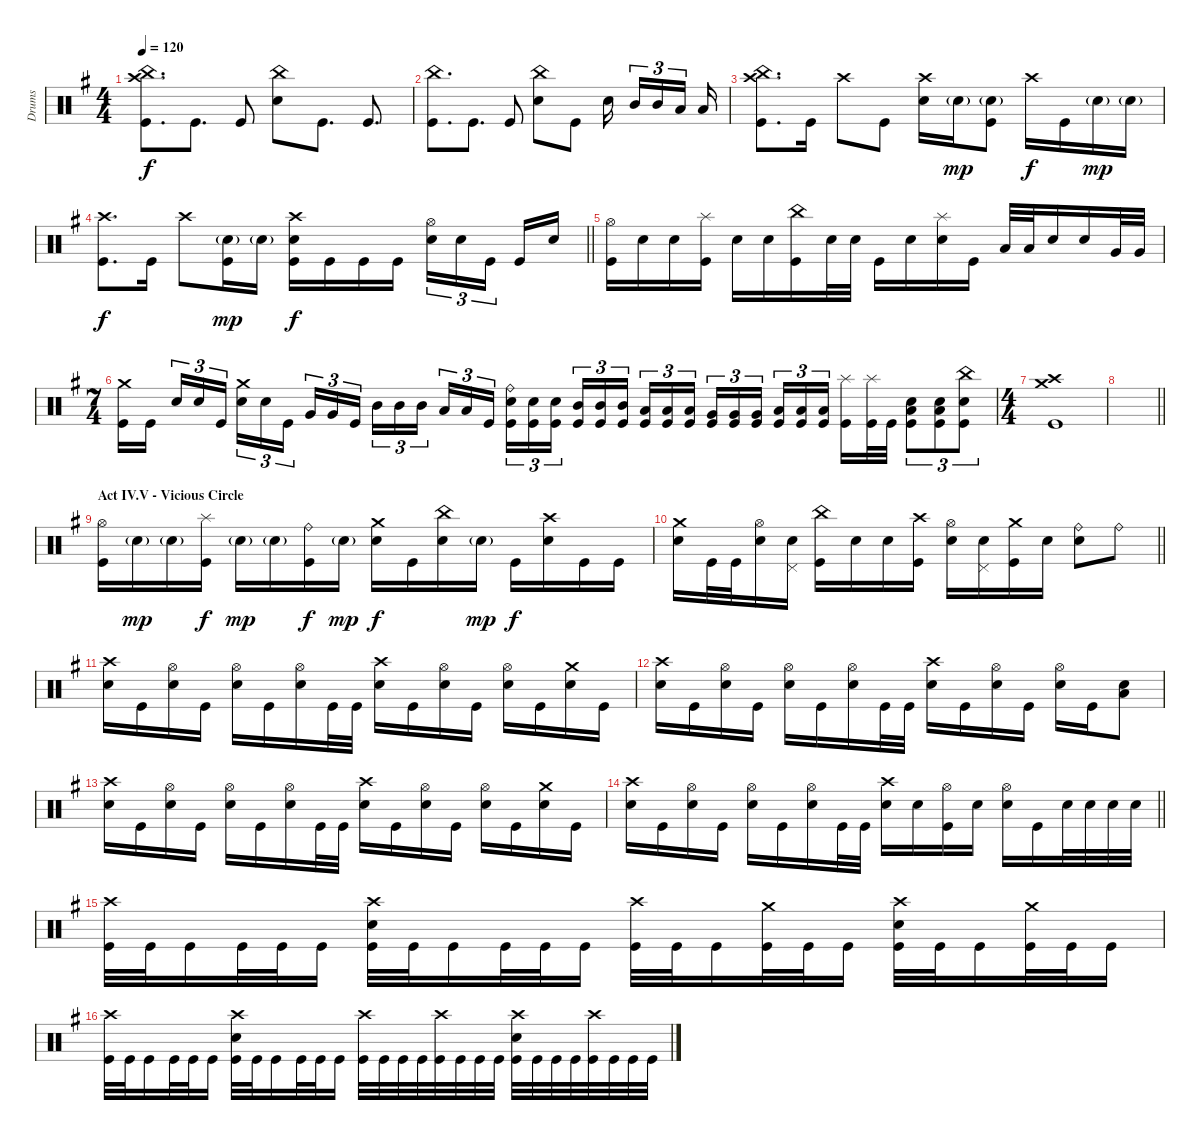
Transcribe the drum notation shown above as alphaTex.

\track ("Drums" "Drums") {instrument percussion}
\staff
\articulation defaults
\ts (4 4)
\tempo 120
\clef neutral
\ks eminor
("Crash high (hit)" "China (hit)" "Kick (hit)").8{d dy f} "Kick (hit)".8{d} "Kick (hit)".8 ("China (hit)" "Electric Snare (hit)").8 "Kick (hit)".8{d} "Kick (hit)".8{d} |
("China (hit)" "Kick (hit)").8{d} "Kick (hit)".8{d} "Kick (hit)".8 ("China (hit)" "Electric Snare (hit)").8 "Kick (hit)".8 "Electric Snare (hit)".16{beam splitsecondary} "Mid Tom (hit)".16{tu (3 2)} "Mid Tom (hit)".16{tu (3 2)} "Low Tom (hit)".16{tu (3 2) beam splitsecondary} "Low Tom (hit)".16 |
("Crash high (hit)" "China (hit)" "Kick (hit)").8{d} "Kick (hit)".16 "Crash high (hit)".8 "Kick (hit)".8 ("Crash high (hit)" "Electric Snare (hit)").16 "Electric Snare (hit)"{g}.16{dy mp} ("Electric Snare (hit)"{g} "Kick (hit)").8 "Crash high (hit)".16{dy f} "Kick (hit)".16 "Electric Snare (hit)"{g}.16{dy mp} "Electric Snare (hit)"{g}.16 |
\barLineRight lightlight
("Crash high (hit)" "Kick (hit)").8{d dy f} "Kick (hit)".16 "Crash high (hit)".8 ("Electric Snare (hit)"{g} "Kick (hit)").16{dy mp} "Electric Snare (hit)"{g}.16 ("Crash high (hit)" "Electric Snare (hit)" "Kick (hit)").16{dy f} "Kick (hit)".16 "Kick (hit)".16 "Kick (hit)".16 ("Hi-Hat (open)" "Electric Snare (hit)").16{tu (3 2)} "Electric Snare (hit)".16{tu (3 2)} "Kick (hit)".16{tu (3 2) beam splitsecondary} "Kick (hit)".16 "Electric Snare (hit)".16 |
("Hi-Hat (open)" "Kick (hit)").16 "Electric Snare (hit)".16 "Electric Snare (hit)".16 ("Splash (hit)" "Kick (hit)").16 "Electric Snare (hit)".16 "Electric Snare (hit)".16 ("China (hit)" "Kick (hit)").16 "Electric Snare (hit)".32 "Electric Snare (hit)".32 "Kick (hit)".16 "Electric Snare (hit)".16 ("Splash (hit)" "Electric Snare (hit)").16 "Kick (hit)".16 "Low Tom (hit)".32 "Low Tom (hit)".32 "Electric Snare (hit)".16 "Electric Snare (hit)".16 "Very Low Tom (hit)".32 "Very Low Tom (hit)".32 |
\ts (7 4)
("Crash medium (hit)" "Kick (hit)").16 "Kick (hit)".16{beam splitsecondary} "Electric Snare (hit)".16{tu (3 2)} "Electric Snare (hit)".16{tu (3 2)} "Kick (hit)".16{tu (3 2)} ("Crash medium (hit)" "Electric Snare (hit)").16{tu (3 2)} "Electric Snare (hit)".16{tu (3 2)} "Kick (hit)".16{tu (3 2) beam splitsecondary} "Very Low Tom (hit)".16{tu (3 2)} "Very Low Tom (hit)".16{tu (3 2)} "Kick (hit)".16{tu (3 2)} "Mid Tom (hit)".16{tu (3 2)} "Mid Tom (hit)".16{tu (3 2)} "Mid Tom (hit)".16{tu (3 2) beam splitsecondary} "Low Tom (hit)".16{tu (3 2)} "Low Tom (hit)".16{tu (3 2)} "Kick (hit)".16{tu (3 2)} ("Ride (bell)" "Electric Snare (hit)" "Kick (hit)").16{tu (3 2)} ("Electric Snare (hit)" "Kick (hit)").16{tu (3 2)} ("Electric Snare (hit)" "Kick (hit)").16{tu (3 2) beam splitsecondary} ("Mid Tom (hit)" "Kick (hit)").16{tu (3 2)} ("Mid Tom (hit)" "Kick (hit)").16{tu (3 2)} ("Mid Tom (hit)" "Kick (hit)").16{tu (3 2)} ("Low Tom (hit)" "Kick (hit)").16{tu (3 2)} ("Low Tom (hit)" "Kick (hit)").16{tu (3 2)} ("Low Tom (hit)" "Kick (hit)").16{tu (3 2) beam splitsecondary} ("Very Low Tom (hit)" "Kick (hit)").16{tu (3 2)} ("Very Low Tom (hit)" "Kick (hit)").16{tu (3 2)} ("Very Low Tom (hit)" "Kick (hit)").16{tu (3 2)} ("Low Floor Tom (hit)" "Kick (hit)").16{tu (3 2)} ("Low Floor Tom (hit)" "Kick (hit)").16{tu (3 2)} ("Low Floor Tom (hit)" "Kick (hit)").16{tu (3 2) beam splitsecondary} ("Splash (hit)" "Kick (hit)").16 ("Splash (hit)" "Kick (hit)").32 "Kick (hit)".32 ("Low Floor Tom (hit)" "Electric Snare (hit)" "Kick (hit)").8{tu (3 2)} ("Low Floor Tom (hit)" "Electric Snare (hit)" "Kick (hit)").8{tu (3 2)} ("China (hit)" "Electric Snare (hit)" "Kick (hit)").8{tu (3 2)} |
\ts (4 4)
("Crash high (hit)" "Crash medium (hit)" "Kick (hit)").1 |
\barLineRight lightlight
|
\section ("" "Act IV.V - Vicious Circle")
("Hi-Hat (open)" "Kick (hit)").16 "Electric Snare (hit)"{g}.16{dy mp} "Electric Snare (hit)"{g}.16 ("Splash (hit)" "Kick (hit)").16{dy f} "Electric Snare (hit)"{g}.16{dy mp} "Electric Snare (hit)"{g}.16 ("Ride (bell)" "Kick (hit)").16{dy f} "Electric Snare (hit)"{g}.16{dy mp} ("Crash medium (hit)" "Electric Snare (hit)").16{dy f} "Kick (hit)".16 ("China (hit)" "Electric Snare (hit)").16 "Electric Snare (hit)"{g}.16{dy mp} "Kick (hit)".16{dy f} ("Crash high (hit)" "Electric Snare (hit)").16 "Kick (hit)".16 "Kick (hit)".16 |
\barLineRight lightlight
("Crash medium (hit)" "Electric Snare (hit)").16 "Kick (hit)".32 "Kick (hit)".32 ("Hi-Hat (open)" "Electric Snare (hit)").16 ("Pedal Hi-Hat (hit)" "Electric Snare (hit)").16 ("China (hit)" "Kick (hit)").16 "Electric Snare (hit)".16 "Electric Snare (hit)".16 ("Crash high (hit)" "Kick (hit)").16 ("Hi-Hat (open)" "Electric Snare (hit)").16 ("Pedal Hi-Hat (hit)" "Electric Snare (hit)").16 ("Crash medium (hit)" "Kick (hit)").16 "Electric Snare (hit)".16 ("Ride (bell)" "Electric Snare (hit)").8 "Ride (bell)".8 |
("Crash high (hit)" "Electric Snare (hit)").16 "Kick (hit)".16 ("Hi-Hat (open)" "Electric Snare (hit)").16 "Kick (hit)".16 ("Hi-Hat (open)" "Electric Snare (hit)").16 "Kick (hit)".16 ("Hi-Hat (open)" "Electric Snare (hit)").16 "Kick (hit)".32 "Kick (hit)".32 ("Crash high (hit)" "Electric Snare (hit)").16 "Kick (hit)".16 ("Hi-Hat (open)" "Electric Snare (hit)").16 "Kick (hit)".16 ("Hi-Hat (open)" "Electric Snare (hit)").16 "Kick (hit)".16 ("Crash medium (hit)" "Electric Snare (hit)").16 "Kick (hit)".16 |
("Crash high (hit)" "Electric Snare (hit)").16 "Kick (hit)".16 ("Hi-Hat (open)" "Electric Snare (hit)").16 "Kick (hit)".16 ("Hi-Hat (open)" "Electric Snare (hit)").16 "Kick (hit)".16 ("Hi-Hat (open)" "Electric Snare (hit)").16 "Kick (hit)".32 "Kick (hit)".32 ("Crash high (hit)" "Electric Snare (hit)").16 "Kick (hit)".16 ("Hi-Hat (open)" "Electric Snare (hit)").16 "Kick (hit)".16 ("Hi-Hat (open)" "Electric Snare (hit)").16 "Kick (hit)".16 ("Low Floor Tom (hit)" "Electric Snare (hit)").8 |
("Crash high (hit)" "Electric Snare (hit)").16 "Kick (hit)".16 ("Hi-Hat (open)" "Electric Snare (hit)").16 "Kick (hit)".16 ("Hi-Hat (open)" "Electric Snare (hit)").16 "Kick (hit)".16 ("Hi-Hat (open)" "Electric Snare (hit)").16 "Kick (hit)".32 "Kick (hit)".32 ("Crash high (hit)" "Electric Snare (hit)").16 "Kick (hit)".16 ("Hi-Hat (open)" "Electric Snare (hit)").16 "Kick (hit)".16 ("Hi-Hat (open)" "Electric Snare (hit)").16 "Kick (hit)".16 ("Crash medium (hit)" "Electric Snare (hit)").16 "Kick (hit)".16 |
\barLineRight lightlight
("Crash high (hit)" "Electric Snare (hit)").16 "Kick (hit)".16 ("Hi-Hat (open)" "Electric Snare (hit)").16 "Kick (hit)".16 ("Hi-Hat (open)" "Electric Snare (hit)").16 "Kick (hit)".16 ("Hi-Hat (open)" "Electric Snare (hit)").16 "Kick (hit)".32 "Kick (hit)".32 ("Crash high (hit)" "Electric Snare (hit)").16 "Electric Snare (hit)".16 ("Hi-Hat (open)" "Kick (hit)").16 "Electric Snare (hit)".16 ("Hi-Hat (open)" "Electric Snare (hit)").16 "Kick (hit)".16 "Electric Snare (hit)".32 "Electric Snare (hit)".32 "Electric Snare (hit)".32 "Electric Snare (hit)".32 |
("Crash high (hit)" "Kick (hit)").32 "Kick (hit)".32 "Kick (hit)".16 "Kick (hit)".32 "Kick (hit)".32 "Kick (hit)".16 ("Crash high (hit)" "Electric Snare (hit)" "Kick (hit)").32 "Kick (hit)".32 "Kick (hit)".16 "Kick (hit)".32 "Kick (hit)".32 "Kick (hit)".16 ("Crash high (hit)" "Kick (hit)").32 "Kick (hit)".32 "Kick (hit)".16 ("Crash medium (hit)" "Kick (hit)").32 "Kick (hit)".32 "Kick (hit)".16 ("Crash high (hit)" "Electric Snare (hit)" "Kick (hit)").32 "Kick (hit)".32 "Kick (hit)".16 ("Crash medium (hit)" "Kick (hit)").32 "Kick (hit)".32 "Kick (hit)".16 |
("Crash high (hit)" "Kick (hit)").32 "Kick (hit)".32 "Kick (hit)".16 "Kick (hit)".32 "Kick (hit)".32 "Kick (hit)".16 ("Crash high (hit)" "Electric Snare (hit)" "Kick (hit)").32 "Kick (hit)".32 "Kick (hit)".16 "Kick (hit)".32 "Kick (hit)".32 "Kick (hit)".16 ("Crash high (hit)" "Kick (hit)").32 "Kick (hit)".32 "Kick (hit)".32 "Kick (hit)".32 ("Crash high (hit)" "Kick (hit)").32 "Kick (hit)".32 "Kick (hit)".32 "Kick (hit)".32 ("Crash high (hit)" "Electric Snare (hit)" "Kick (hit)").32 "Kick (hit)".32 "Kick (hit)".32 "Kick (hit)".32 ("Crash high (hit)" "Kick (hit)").32 "Kick (hit)".32 "Kick (hit)".32 "Kick (hit)".32
